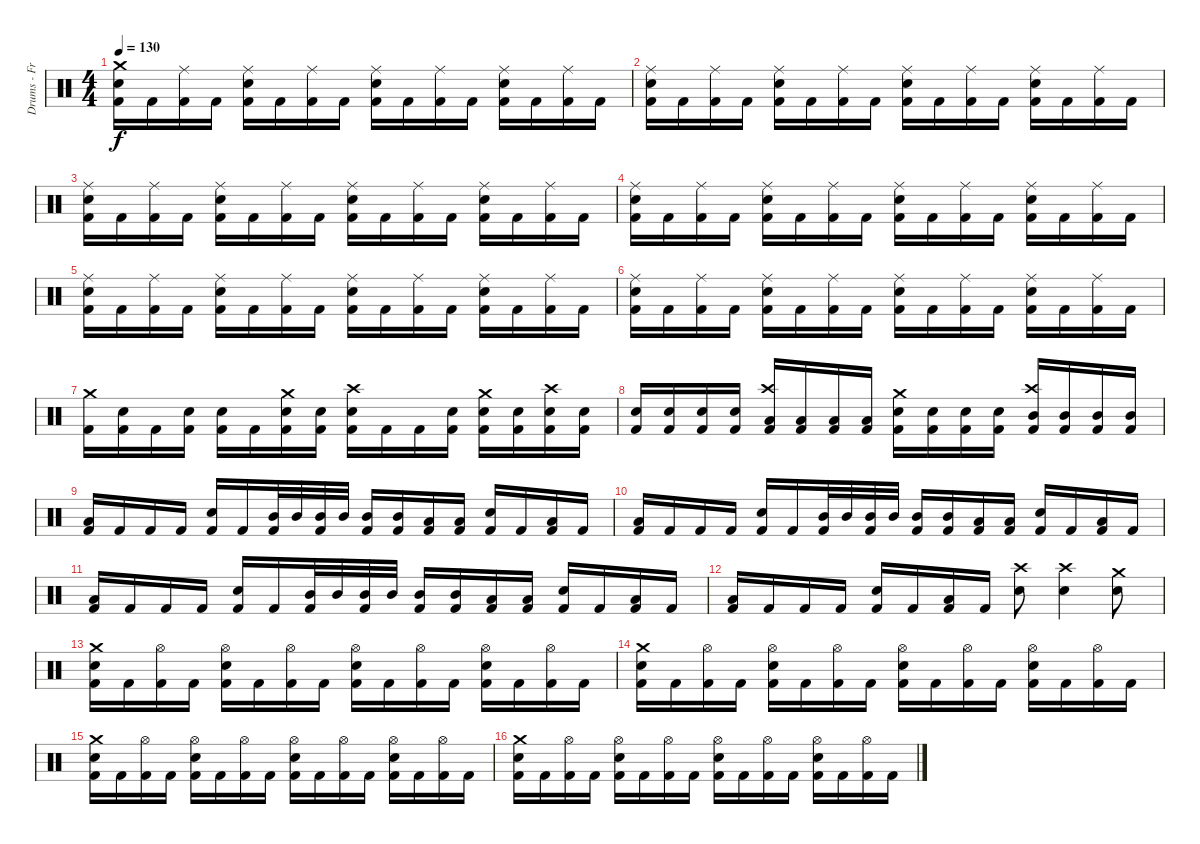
\track ("Drums - Fredrik Andersson" "Drums - Fr") {instrument percussion}
\staff {score}
\articulation defaults
\ts (4 4)
\tempo 130
\clef neutral
\ks c
("Kick (hit) 2" "Snare (hit) 2" "Crash medium (hit)").16{dy f} "Kick (hit) 2".16 ("Kick (hit) 2" "Ride (middle)").16 "Kick (hit) 2".16 ("Kick (hit) 2" "Snare (hit) 2" "Ride (middle)").16 "Kick (hit) 2".16 ("Kick (hit) 2" "Ride (middle)").16 "Kick (hit) 2".16 ("Kick (hit) 2" "Snare (hit) 2" "Ride (middle)").16 "Kick (hit) 2".16 ("Kick (hit) 2" "Ride (middle)").16 "Kick (hit) 2".16 ("Kick (hit) 2" "Snare (hit) 2" "Ride (middle)").16 "Kick (hit) 2".16 ("Kick (hit) 2" "Ride (middle)").16 "Kick (hit) 2".16 |
("Kick (hit) 2" "Snare (hit) 2" "Ride (middle)").16 "Kick (hit) 2".16 ("Kick (hit) 2" "Ride (middle)").16 "Kick (hit) 2".16 ("Kick (hit) 2" "Snare (hit) 2" "Ride (middle)").16 "Kick (hit) 2".16 ("Kick (hit) 2" "Ride (middle)").16 "Kick (hit) 2".16 ("Kick (hit) 2" "Snare (hit) 2" "Ride (middle)").16 "Kick (hit) 2".16 ("Kick (hit) 2" "Ride (middle)").16 "Kick (hit) 2".16 ("Kick (hit) 2" "Snare (hit) 2" "Ride (middle)").16 "Kick (hit) 2".16 ("Kick (hit) 2" "Ride (middle)").16 "Kick (hit) 2".16 |
("Kick (hit) 2" "Snare (hit) 2" "Ride (middle)").16 "Kick (hit) 2".16 ("Kick (hit) 2" "Ride (middle)").16 "Kick (hit) 2".16 ("Kick (hit) 2" "Snare (hit) 2" "Ride (middle)").16 "Kick (hit) 2".16 ("Kick (hit) 2" "Ride (middle)").16 "Kick (hit) 2".16 ("Kick (hit) 2" "Snare (hit) 2" "Ride (middle)").16 "Kick (hit) 2".16 ("Kick (hit) 2" "Ride (middle)").16 "Kick (hit) 2".16 ("Kick (hit) 2" "Snare (hit) 2" "Ride (middle)").16 "Kick (hit) 2".16 ("Kick (hit) 2" "Ride (middle)").16 "Kick (hit) 2".16 |
("Kick (hit) 2" "Snare (hit) 2" "Ride (middle)").16 "Kick (hit) 2".16 ("Kick (hit) 2" "Ride (middle)").16 "Kick (hit) 2".16 ("Kick (hit) 2" "Snare (hit) 2" "Ride (middle)").16 "Kick (hit) 2".16 ("Kick (hit) 2" "Ride (middle)").16 "Kick (hit) 2".16 ("Kick (hit) 2" "Snare (hit) 2" "Ride (middle)").16 "Kick (hit) 2".16 ("Kick (hit) 2" "Ride (middle)").16 "Kick (hit) 2".16 ("Kick (hit) 2" "Snare (hit) 2" "Ride (middle)").16 "Kick (hit) 2".16 ("Kick (hit) 2" "Ride (middle)").16 "Kick (hit) 2".16 |
("Kick (hit) 2" "Snare (hit) 2" "Ride (middle)").16 "Kick (hit) 2".16 ("Kick (hit) 2" "Ride (middle)").16 "Kick (hit) 2".16 ("Kick (hit) 2" "Snare (hit) 2" "Ride (middle)").16 "Kick (hit) 2".16 ("Kick (hit) 2" "Ride (middle)").16 "Kick (hit) 2".16 ("Kick (hit) 2" "Snare (hit) 2" "Ride (middle)").16 "Kick (hit) 2".16 ("Kick (hit) 2" "Ride (middle)").16 "Kick (hit) 2".16 ("Kick (hit) 2" "Snare (hit) 2" "Ride (middle)").16 "Kick (hit) 2".16 ("Kick (hit) 2" "Ride (middle)").16 "Kick (hit) 2".16 |
("Kick (hit) 2" "Snare (hit) 2" "Ride (middle)").16 "Kick (hit) 2".16 ("Kick (hit) 2" "Ride (middle)").16 "Kick (hit) 2".16 ("Kick (hit) 2" "Snare (hit) 2" "Ride (middle)").16 "Kick (hit) 2".16 ("Kick (hit) 2" "Ride (middle)").16 "Kick (hit) 2".16 ("Kick (hit) 2" "Snare (hit) 2" "Ride (middle)").16 "Kick (hit) 2".16 ("Kick (hit) 2" "Ride (middle)").16 "Kick (hit) 2".16 ("Kick (hit) 2" "Snare (hit) 2" "Ride (middle)").16 "Kick (hit) 2".16 ("Kick (hit) 2" "Ride (middle)").16 "Kick (hit) 2".16 |
("Kick (hit) 2" "Crash medium (hit)").16 ("Kick (hit) 2" "Snare (hit) 2").16 "Kick (hit) 2".16 ("Kick (hit) 2" "Snare (hit) 2").16 ("Kick (hit) 2" "Snare (hit) 2").16 "Kick (hit) 2".16 ("Kick (hit) 2" "Snare (hit) 2" "Crash medium (hit)").16 ("Kick (hit) 2" "Snare (hit) 2").16 ("Kick (hit) 2" "Snare (hit) 2" "Crash high (hit)").16 "Kick (hit) 2".16 "Kick (hit) 2".16 ("Kick (hit) 2" "Snare (hit) 2").16 ("Kick (hit) 2" "Snare (hit) 2" "Crash medium (hit)").16 ("Kick (hit) 2" "Snare (hit) 2").16 ("Kick (hit) 2" "Snare (hit) 2" "Crash high (hit)").16 ("Kick (hit) 2" "Snare (hit) 2").16 |
("Kick (hit) 2" "Snare (hit) 2").16 ("Kick (hit) 2" "Snare (hit) 2").16 ("Kick (hit) 2" "Snare (hit) 2").16 ("Kick (hit) 2" "Snare (hit) 2").16 ("Kick (hit) 2" "Low Tom (hit)" "Crash high (hit)").16 ("Kick (hit) 2" "Low Tom (hit)").16 ("Kick (hit) 2" "Low Tom (hit)").16 ("Kick (hit) 2" "Low Tom (hit)").16 ("Kick (hit) 2" "Snare (hit) 2" "Crash medium (hit)").16 ("Kick (hit) 2" "Snare (hit) 2").16 ("Kick (hit) 2" "Snare (hit) 2").16 ("Kick (hit) 2" "Snare (hit) 2").16 ("Kick (hit) 2" "Mid Tom (hit)" "Crash high (hit)").16 ("Kick (hit) 2" "Mid Tom (hit)").16 ("Kick (hit) 2" "Mid Tom (hit)").16 ("Kick (hit) 2" "Mid Tom (hit)").16 |
("Kick (hit) 2" "Low Floor Tom (hit)").16 "Kick (hit) 2".16 "Kick (hit) 2".16 "Kick (hit) 2".16 ("Kick (hit) 2" "Snare (hit) 2").16 "Kick (hit) 2".16 ("Kick (hit) 2" "Mid Tom (hit)").32 "Mid Tom (hit)".32 ("Kick (hit) 2" "Mid Tom (hit)").32 "Mid Tom (hit)".32 ("Kick (hit) 2" "Mid Tom (hit)").16 ("Kick (hit) 2" "Mid Tom (hit)").16 ("Kick (hit) 2" "Low Tom (hit)").16 ("Kick (hit) 2" "Low Tom (hit)").16 ("Kick (hit) 2" "Snare (hit) 2").16 "Kick (hit) 2".16 ("Kick (hit) 2" "Low Floor Tom (hit)").16 "Kick (hit) 2".16 |
("Kick (hit) 2" "Low Floor Tom (hit)").16 "Kick (hit) 2".16 "Kick (hit) 2".16 "Kick (hit) 2".16 ("Kick (hit) 2" "Snare (hit) 2").16 "Kick (hit) 2".16 ("Kick (hit) 2" "Mid Tom (hit)").32 "Mid Tom (hit)".32 ("Kick (hit) 2" "Mid Tom (hit)").32 "Mid Tom (hit)".32 ("Kick (hit) 2" "Mid Tom (hit)").16 ("Kick (hit) 2" "Mid Tom (hit)").16 ("Kick (hit) 2" "Low Tom (hit)").16 ("Kick (hit) 2" "Low Tom (hit)").16 ("Kick (hit) 2" "Snare (hit) 2").16 "Kick (hit) 2".16 ("Kick (hit) 2" "Low Floor Tom (hit)").16 "Kick (hit) 2".16 |
("Kick (hit) 2" "Low Floor Tom (hit)").16 "Kick (hit) 2".16 "Kick (hit) 2".16 "Kick (hit) 2".16 ("Kick (hit) 2" "Snare (hit) 2").16 "Kick (hit) 2".16 ("Kick (hit) 2" "Mid Tom (hit)").32 "Mid Tom (hit)".32 ("Kick (hit) 2" "Mid Tom (hit)").32 "Mid Tom (hit)".32 ("Kick (hit) 2" "Mid Tom (hit)").16 ("Kick (hit) 2" "Mid Tom (hit)").16 ("Kick (hit) 2" "Low Tom (hit)").16 ("Kick (hit) 2" "Low Tom (hit)").16 ("Kick (hit) 2" "Snare (hit) 2").16 "Kick (hit) 2".16 ("Kick (hit) 2" "Low Floor Tom (hit)").16 "Kick (hit) 2".16 |
("Kick (hit) 2" "Low Floor Tom (hit)").16 "Kick (hit) 2".16 "Kick (hit) 2".16 "Kick (hit) 2".16 ("Kick (hit) 2" "Snare (hit) 2").16 "Kick (hit) 2".16 ("Kick (hit) 2" "Low Floor Tom (hit)").16 "Kick (hit) 2".16 ("Crash high (hit)" "Snare (hit) 2").8 ("Crash high (hit)" "Snare (hit) 2").4 ("Crash medium (hit)" "Snare (hit) 2").8 |
("Kick (hit) 2" "Snare (hit) 2" "Crash medium (hit)").16 "Kick (hit) 2".16 ("Kick (hit) 2" "Hi-Hat (open)").16 "Kick (hit) 2".16 ("Kick (hit) 2" "Snare (hit) 2" "Hi-Hat (open)").16 "Kick (hit) 2".16 ("Kick (hit) 2" "Hi-Hat (open)").16 "Kick (hit) 2".16 ("Kick (hit) 2" "Snare (hit) 2" "Hi-Hat (open)").16 "Kick (hit) 2".16 ("Kick (hit) 2" "Hi-Hat (open)").16 "Kick (hit) 2".16 ("Kick (hit) 2" "Snare (hit) 2" "Hi-Hat (open)").16 "Kick (hit) 2".16 ("Kick (hit) 2" "Hi-Hat (open)").16 "Kick (hit) 2".16 |
("Kick (hit) 2" "Snare (hit) 2" "Crash medium (hit)").16 "Kick (hit) 2".16 ("Kick (hit) 2" "Hi-Hat (open)").16 "Kick (hit) 2".16 ("Kick (hit) 2" "Snare (hit) 2" "Hi-Hat (open)").16 "Kick (hit) 2".16 ("Kick (hit) 2" "Hi-Hat (open)").16 "Kick (hit) 2".16 ("Kick (hit) 2" "Snare (hit) 2" "Hi-Hat (open)").16 "Kick (hit) 2".16 ("Kick (hit) 2" "Hi-Hat (open)").16 "Kick (hit) 2".16 ("Kick (hit) 2" "Snare (hit) 2" "Hi-Hat (open)").16 "Kick (hit) 2".16 ("Kick (hit) 2" "Hi-Hat (open)").16 "Kick (hit) 2".16 |
("Kick (hit) 2" "Snare (hit) 2" "Crash medium (hit)").16 "Kick (hit) 2".16 ("Kick (hit) 2" "Hi-Hat (open)").16 "Kick (hit) 2".16 ("Kick (hit) 2" "Snare (hit) 2" "Hi-Hat (open)").16 "Kick (hit) 2".16 ("Kick (hit) 2" "Hi-Hat (open)").16 "Kick (hit) 2".16 ("Kick (hit) 2" "Snare (hit) 2" "Hi-Hat (open)").16 "Kick (hit) 2".16 ("Kick (hit) 2" "Hi-Hat (open)").16 "Kick (hit) 2".16 ("Kick (hit) 2" "Snare (hit) 2" "Hi-Hat (open)").16 "Kick (hit) 2".16 ("Kick (hit) 2" "Hi-Hat (open)").16 "Kick (hit) 2".16 |
("Kick (hit) 2" "Snare (hit) 2" "Crash medium (hit)").16 "Kick (hit) 2".16 ("Kick (hit) 2" "Hi-Hat (open)").16 "Kick (hit) 2".16 ("Kick (hit) 2" "Snare (hit) 2" "Hi-Hat (open)").16 "Kick (hit) 2".16 ("Kick (hit) 2" "Hi-Hat (open)").16 "Kick (hit) 2".16 ("Kick (hit) 2" "Snare (hit) 2" "Hi-Hat (open)").16 "Kick (hit) 2".16 ("Kick (hit) 2" "Hi-Hat (open)").16 "Kick (hit) 2".16 ("Kick (hit) 2" "Snare (hit) 2" "Hi-Hat (open)").16 "Kick (hit) 2".16 ("Kick (hit) 2" "Hi-Hat (open)").16 "Kick (hit) 2".16
